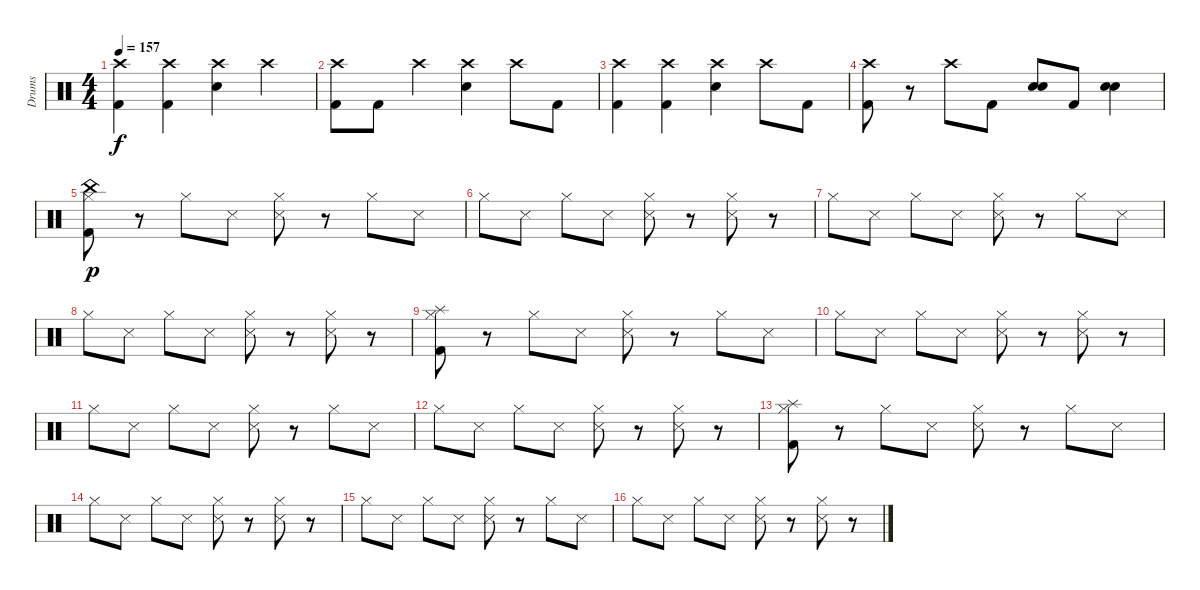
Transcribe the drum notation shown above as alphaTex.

\track ("Drums" "Drums") {instrument percussion}
\staff {score}
\articulation defaults
\ts (4 4)
\tempo 157
\clef neutral
\ks c
("Crash high (hit)" "Kick (hit) 2").4{dy f} ("Crash high (hit)" "Kick (hit) 2").4 ("Crash high (hit)" "Electric Snare (hit)").4 "Crash high (hit)".4 |
("Crash high (hit)" "Kick (hit) 2").8 "Kick (hit) 2".8 "Crash high (hit)".4 ("Crash high (hit)" "Electric Snare (hit)").4 "Crash high (hit)".8 "Kick (hit) 2".8 |
("Crash high (hit)" "Kick (hit) 2").4 ("Crash high (hit)" "Kick (hit) 2").4 ("Crash high (hit)" "Electric Snare (hit)").4 "Crash high (hit)".8 "Kick (hit) 2".8 |
("Crash high (hit)" "Kick (hit) 2").8 r.8 "Crash high (hit)".8 "Kick (hit) 2".8 ("Snare (hit) 2" "Electric Snare (hit)").8 "Kick (hit) 2".8 ("Snare (hit) 2" "Electric Snare (hit)").4 |
("Hi-Hat (closed)" "China (hit)" "Kick (hit) 2").8{dy p} r.8 "Hi-Hat (closed)".8 "Snare (side stick) 3".8 ("Hi-Hat (closed)" "Snare (side stick) 3").8 r.8 "Hi-Hat (closed)".8 "Snare (side stick) 3".8 |
"Hi-Hat (closed)".8 "Snare (side stick) 3".8 "Hi-Hat (closed)".8 "Snare (side stick) 3".8 ("Hi-Hat (closed)" "Snare (side stick) 3").8 r.8 ("Hi-Hat (closed)" "Snare (side stick) 3").8 r.8 |
"Hi-Hat (closed)".8 "Snare (side stick) 3".8 "Hi-Hat (closed)".8 "Snare (side stick) 3".8 ("Hi-Hat (closed)" "Snare (side stick) 3").8 r.8 "Hi-Hat (closed)".8 "Snare (side stick) 3".8 |
"Hi-Hat (closed)".8 "Snare (side stick) 3".8 "Hi-Hat (closed)".8 "Snare (side stick) 3".8 ("Hi-Hat (closed)" "Snare (side stick) 3").8 r.8 ("Hi-Hat (closed)" "Snare (side stick) 3").8 r.8 |
("Hi-Hat (closed)" "Splash (hit)" "Kick (hit) 2").8 r.8 "Hi-Hat (closed)".8 "Snare (side stick) 3".8 ("Hi-Hat (closed)" "Snare (side stick) 3").8 r.8 "Hi-Hat (closed)".8 "Snare (side stick) 3".8 |
"Hi-Hat (closed)".8 "Snare (side stick) 3".8 "Hi-Hat (closed)".8 "Snare (side stick) 3".8 ("Hi-Hat (closed)" "Snare (side stick) 3").8 r.8 ("Hi-Hat (closed)" "Snare (side stick) 3").8 r.8 |
"Hi-Hat (closed)".8 "Snare (side stick) 3".8 "Hi-Hat (closed)".8 "Snare (side stick) 3".8 ("Hi-Hat (closed)" "Snare (side stick) 3").8 r.8 "Hi-Hat (closed)".8 "Snare (side stick) 3".8 |
"Hi-Hat (closed)".8 "Snare (side stick) 3".8 "Hi-Hat (closed)".8 "Snare (side stick) 3".8 ("Hi-Hat (closed)" "Snare (side stick) 3").8 r.8 ("Hi-Hat (closed)" "Snare (side stick) 3").8 r.8 |
("Hi-Hat (closed)" "Splash (hit)" "Kick (hit) 2").8 r.8 "Hi-Hat (closed)".8 "Snare (side stick) 3".8 ("Hi-Hat (closed)" "Snare (side stick) 3").8 r.8 "Hi-Hat (closed)".8 "Snare (side stick) 3".8 |
"Hi-Hat (closed)".8 "Snare (side stick) 3".8 "Hi-Hat (closed)".8 "Snare (side stick) 3".8 ("Hi-Hat (closed)" "Snare (side stick) 3").8 r.8 ("Hi-Hat (closed)" "Snare (side stick) 3").8 r.8 |
"Hi-Hat (closed)".8 "Snare (side stick) 3".8 "Hi-Hat (closed)".8 "Snare (side stick) 3".8 ("Hi-Hat (closed)" "Snare (side stick) 3").8 r.8 "Hi-Hat (closed)".8 "Snare (side stick) 3".8 |
"Hi-Hat (closed)".8 "Snare (side stick) 3".8 "Hi-Hat (closed)".8 "Snare (side stick) 3".8 ("Hi-Hat (closed)" "Snare (side stick) 3").8 r.8 ("Hi-Hat (closed)" "Snare (side stick) 3").8 r.8
